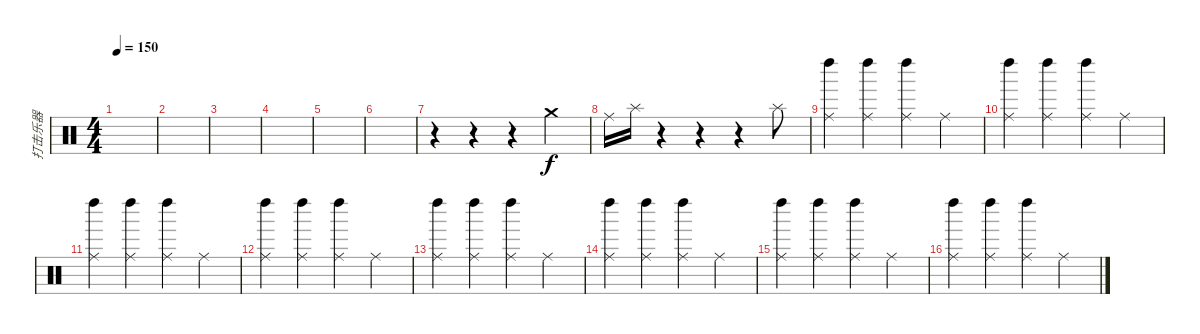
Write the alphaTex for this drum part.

\track ("打击乐器" "打击乐器") {instrument percussion bank 2}
\staff {score}
\articulation defaults
\ts (4 4)
\tempo 150
\clef neutral
\ks c
|
|
|
|
|
|
r.4 r.4 r.4 "Crash medium (hit)".4 |
"Ride (middle)".16 "Splash (hit)".16 r.4 r.4 r.4 "Splash (hit)".8 |
("Left Maraca (hit)" "Ride (middle)").4 ("Left Maraca (hit)" "Ride (middle)").4 ("Left Maraca (hit)" "Ride (middle)").4 "Ride (middle)".4 |
("Left Maraca (hit)" "Ride (middle)").4 ("Left Maraca (hit)" "Ride (middle)").4 ("Left Maraca (hit)" "Ride (middle)").4 "Ride (middle)".4 |
("Left Maraca (hit)" "Ride (middle)").4 ("Left Maraca (hit)" "Ride (middle)").4 ("Left Maraca (hit)" "Ride (middle)").4 "Ride (middle)".4 |
("Left Maraca (hit)" "Ride (middle)").4 ("Left Maraca (hit)" "Ride (middle)").4 ("Left Maraca (hit)" "Ride (middle)").4 "Ride (middle)".4 |
("Left Maraca (hit)" "Ride (middle)").4 ("Left Maraca (hit)" "Ride (middle)").4 ("Left Maraca (hit)" "Ride (middle)").4 "Ride (middle)".4 |
("Left Maraca (hit)" "Ride (middle)").4 ("Left Maraca (hit)" "Ride (middle)").4 ("Left Maraca (hit)" "Ride (middle)").4 "Ride (middle)".4 |
("Left Maraca (hit)" "Ride (middle)").4 ("Left Maraca (hit)" "Ride (middle)").4 ("Left Maraca (hit)" "Ride (middle)").4 "Ride (middle)".4 |
("Left Maraca (hit)" "Ride (middle)").4 ("Left Maraca (hit)" "Ride (middle)").4 ("Left Maraca (hit)" "Ride (middle)").4 "Ride (middle)".4
